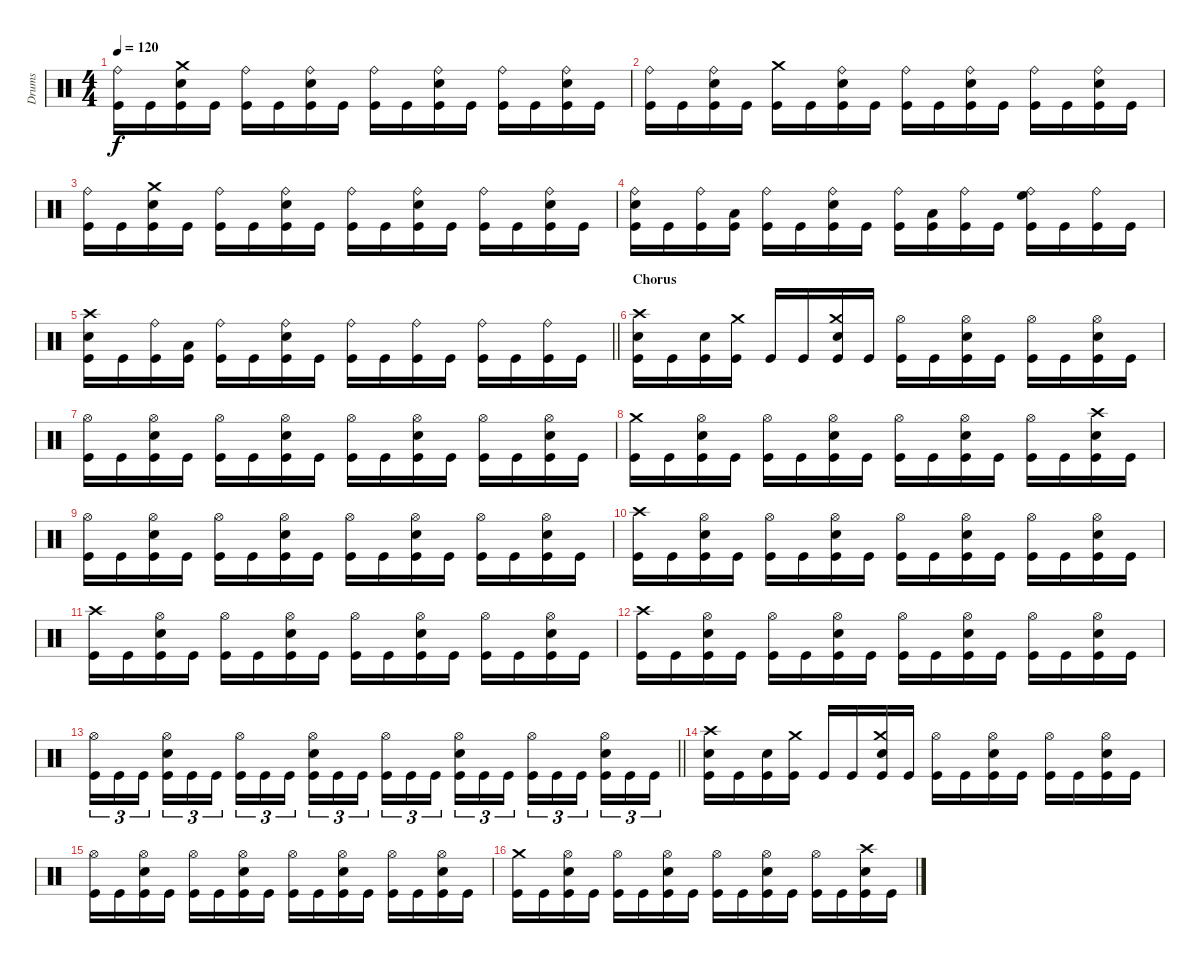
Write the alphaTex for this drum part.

\track ("Drums" "Drums") {instrument percussion}
\staff {score}
\articulation defaults
\ts (4 4)
\tempo 120
\clef neutral
\ks c
("Ride (bell)" "Kick (hit)").16{dy f} "Kick (hit)".16 ("Crash medium (hit)" "Electric Snare (hit)" "Kick (hit)").16 "Kick (hit)".16 ("Ride (bell)" "Kick (hit)").16 "Kick (hit)".16 ("Ride (bell)" "Electric Snare (hit)" "Kick (hit)").16 "Kick (hit)".16 ("Ride (bell)" "Kick (hit)").16 "Kick (hit)".16 ("Ride (bell)" "Electric Snare (hit)" "Kick (hit)").16 "Kick (hit)".16 ("Ride (bell)" "Kick (hit)").16 "Kick (hit)".16 ("Ride (bell)" "Electric Snare (hit)" "Kick (hit)").16 "Kick (hit)".16 |
("Ride (bell)" "Kick (hit)").16 "Kick (hit)".16 ("Ride (bell)" "Electric Snare (hit)" "Kick (hit)").16 "Kick (hit)".16 ("Crash medium (hit)" "Kick (hit)").16 "Kick (hit)".16 ("Ride (bell)" "Electric Snare (hit)" "Kick (hit)").16 "Kick (hit)".16 ("Ride (bell)" "Kick (hit)").16 "Kick (hit)".16 ("Ride (bell)" "Electric Snare (hit)" "Kick (hit)").16 "Kick (hit)".16 ("Ride (bell)" "Kick (hit)").16 "Kick (hit)".16 ("Ride (bell)" "Electric Snare (hit)" "Kick (hit)").16 "Kick (hit)".16 |
("Ride (bell)" "Kick (hit)").16 "Kick (hit)".16 ("Crash medium (hit)" "Electric Snare (hit)" "Kick (hit)").16 "Kick (hit)".16 ("Ride (bell)" "Kick (hit)").16 "Kick (hit)".16 ("Ride (bell)" "Electric Snare (hit)" "Kick (hit)").16 "Kick (hit)".16 ("Ride (bell)" "Kick (hit)").16 "Kick (hit)".16 ("Ride (bell)" "Electric Snare (hit)" "Kick (hit)").16 "Kick (hit)".16 ("Ride (bell)" "Kick (hit)").16 "Kick (hit)".16 ("Ride (bell)" "Electric Snare (hit)" "Kick (hit)").16 "Kick (hit)".16 |
("Ride (bell)" "Electric Snare (hit)" "Kick (hit)").16 "Kick (hit)".16 ("Ride (bell)" "Kick (hit)").16 ("Low Tom (hit)" "Kick (hit)").16 ("Ride (bell)" "Kick (hit)").16 "Kick (hit)".16 ("Ride (bell)" "Electric Snare (hit)" "Kick (hit)").16 "Kick (hit)".16 ("Ride (bell)" "Kick (hit)").16 ("Low Tom (hit)" "Kick (hit)").16 ("Ride (bell)" "Kick (hit)").16 "Kick (hit)".16 ("Ride (bell)" "High Floor Tom (hit)" "Kick (hit)").16 "Kick (hit)".16 ("Ride (bell)" "Kick (hit)").16 "Kick (hit)".16 |
\barLineRight lightlight
("Crash high (hit)" "Electric Snare (hit)" "Kick (hit)").16 "Kick (hit)".16 ("Ride (bell)" "Kick (hit)").16 ("Low Tom (hit)" "Kick (hit)").16 ("Ride (bell)" "Kick (hit)").16 "Kick (hit)".16 ("Ride (bell)" "Electric Snare (hit)" "Kick (hit)").16 "Kick (hit)".16 ("Ride (bell)" "Kick (hit)").16 "Kick (hit)".16 ("Ride (bell)" "Kick (hit)").16 "Kick (hit)".16 ("Ride (bell)" "Kick (hit)").16 "Kick (hit)".16 ("Ride (bell)" "Kick (hit)").16 "Kick (hit)".16 |
\section ("" "Chorus")
("Crash high (hit)" "Electric Snare (hit)" "Kick (hit)").16 "Kick (hit)".16 ("Electric Snare (hit)" "Kick (hit)").16 ("Crash medium (hit)" "Kick (hit)").16 "Kick (hit)".16 "Kick (hit)".16 ("Crash medium (hit)" "Electric Snare (hit)" "Kick (hit)").16 "Kick (hit)".16 ("Hi-Hat (open)" "Kick (hit)").16 "Kick (hit)".16 ("Hi-Hat (open)" "Electric Snare (hit)" "Kick (hit)").16 "Kick (hit)".16 ("Hi-Hat (open)" "Kick (hit)").16 "Kick (hit)".16 ("Hi-Hat (open)" "Electric Snare (hit)" "Kick (hit)").16 "Kick (hit)".16 |
("Hi-Hat (open)" "Kick (hit)").16 "Kick (hit)".16 ("Hi-Hat (open)" "Electric Snare (hit)" "Kick (hit)").16 "Kick (hit)".16 ("Hi-Hat (open)" "Kick (hit)").16 "Kick (hit)".16 ("Hi-Hat (open)" "Electric Snare (hit)" "Kick (hit)").16 "Kick (hit)".16 ("Hi-Hat (open)" "Kick (hit)").16 "Kick (hit)".16 ("Hi-Hat (open)" "Electric Snare (hit)" "Kick (hit)").16 "Kick (hit)".16 ("Hi-Hat (open)" "Kick (hit)").16 "Kick (hit)".16 ("Hi-Hat (open)" "Electric Snare (hit)" "Kick (hit)").16 "Kick (hit)".16 |
("Crash medium (hit)" "Kick (hit)").16 "Kick (hit)".16 ("Hi-Hat (open)" "Electric Snare (hit)" "Kick (hit)").16 "Kick (hit)".16 ("Hi-Hat (open)" "Kick (hit)").16 "Kick (hit)".16 ("Hi-Hat (open)" "Electric Snare (hit)" "Kick (hit)").16 "Kick (hit)".16 ("Hi-Hat (open)" "Kick (hit)").16 "Kick (hit)".16 ("Hi-Hat (open)" "Electric Snare (hit)" "Kick (hit)").16 "Kick (hit)".16 ("Hi-Hat (open)" "Kick (hit)").16 "Kick (hit)".16 ("Crash high (hit)" "Electric Snare (hit)" "Kick (hit)").16 "Kick (hit)".16 |
("Hi-Hat (open)" "Kick (hit)").16 "Kick (hit)".16 ("Hi-Hat (open)" "Electric Snare (hit)" "Kick (hit)").16 "Kick (hit)".16 ("Hi-Hat (open)" "Kick (hit)").16 "Kick (hit)".16 ("Hi-Hat (open)" "Electric Snare (hit)" "Kick (hit)").16 "Kick (hit)".16 ("Hi-Hat (open)" "Kick (hit)").16 "Kick (hit)".16 ("Hi-Hat (open)" "Electric Snare (hit)" "Kick (hit)").16 "Kick (hit)".16 ("Hi-Hat (open)" "Kick (hit)").16 "Kick (hit)".16 ("Hi-Hat (open)" "Electric Snare (hit)" "Kick (hit)").16 "Kick (hit)".16 |
("Crash high (hit)" "Kick (hit)").16 "Kick (hit)".16 ("Hi-Hat (open)" "Electric Snare (hit)" "Kick (hit)").16 "Kick (hit)".16 ("Hi-Hat (open)" "Kick (hit)").16 "Kick (hit)".16 ("Hi-Hat (open)" "Electric Snare (hit)" "Kick (hit)").16 "Kick (hit)".16 ("Hi-Hat (open)" "Kick (hit)").16 "Kick (hit)".16 ("Hi-Hat (open)" "Electric Snare (hit)" "Kick (hit)").16 "Kick (hit)".16 ("Hi-Hat (open)" "Kick (hit)").16 "Kick (hit)".16 ("Hi-Hat (open)" "Electric Snare (hit)" "Kick (hit)").16 "Kick (hit)".16 |
("Crash high (hit)" "Kick (hit)").16 "Kick (hit)".16 ("Hi-Hat (open)" "Electric Snare (hit)" "Kick (hit)").16 "Kick (hit)".16 ("Hi-Hat (open)" "Kick (hit)").16 "Kick (hit)".16 ("Hi-Hat (open)" "Electric Snare (hit)" "Kick (hit)").16 "Kick (hit)".16 ("Hi-Hat (open)" "Kick (hit)").16 "Kick (hit)".16 ("Hi-Hat (open)" "Electric Snare (hit)" "Kick (hit)").16 "Kick (hit)".16 ("Hi-Hat (open)" "Kick (hit)").16 "Kick (hit)".16 ("Hi-Hat (open)" "Electric Snare (hit)" "Kick (hit)").16 "Kick (hit)".16 |
("Crash high (hit)" "Kick (hit)").16 "Kick (hit)".16 ("Hi-Hat (open)" "Electric Snare (hit)" "Kick (hit)").16 "Kick (hit)".16 ("Hi-Hat (open)" "Kick (hit)").16 "Kick (hit)".16 ("Hi-Hat (open)" "Electric Snare (hit)" "Kick (hit)").16 "Kick (hit)".16 ("Hi-Hat (open)" "Kick (hit)").16 "Kick (hit)".16 ("Hi-Hat (open)" "Electric Snare (hit)" "Kick (hit)").16 "Kick (hit)".16 ("Hi-Hat (open)" "Kick (hit)").16 "Kick (hit)".16 ("Hi-Hat (open)" "Electric Snare (hit)" "Kick (hit)").16 "Kick (hit)".16 |
\barLineRight lightlight
("Hi-Hat (open)" "Kick (hit)").16{tu (3 2)} "Kick (hit)".16{tu (3 2)} "Kick (hit)".16{tu (3 2)} ("Hi-Hat (open)" "Electric Snare (hit)" "Kick (hit)").16{tu (3 2)} "Kick (hit)".16{tu (3 2)} "Kick (hit)".16{tu (3 2)} ("Hi-Hat (open)" "Kick (hit)").16{tu (3 2)} "Kick (hit)".16{tu (3 2)} "Kick (hit)".16{tu (3 2)} ("Hi-Hat (open)" "Electric Snare (hit)" "Kick (hit)").16{tu (3 2)} "Kick (hit)".16{tu (3 2)} "Kick (hit)".16{tu (3 2)} ("Hi-Hat (open)" "Kick (hit)").16{tu (3 2)} "Kick (hit)".16{tu (3 2)} "Kick (hit)".16{tu (3 2)} ("Hi-Hat (open)" "Electric Snare (hit)" "Kick (hit)").16{tu (3 2)} "Kick (hit)".16{tu (3 2)} "Kick (hit)".16{tu (3 2)} ("Hi-Hat (open)" "Kick (hit)").16{tu (3 2)} "Kick (hit)".16{tu (3 2)} "Kick (hit)".16{tu (3 2)} ("Hi-Hat (open)" "Electric Snare (hit)" "Kick (hit)").16{tu (3 2)} "Kick (hit)".16{tu (3 2)} "Kick (hit)".16{tu (3 2)} |
("Crash high (hit)" "Electric Snare (hit)" "Kick (hit)").16 "Kick (hit)".16 ("Electric Snare (hit)" "Kick (hit)").16 ("Crash medium (hit)" "Kick (hit)").16 "Kick (hit)".16 "Kick (hit)".16 ("Crash medium (hit)" "Electric Snare (hit)" "Kick (hit)").16 "Kick (hit)".16 ("Hi-Hat (open)" "Kick (hit)").16 "Kick (hit)".16 ("Hi-Hat (open)" "Electric Snare (hit)" "Kick (hit)").16 "Kick (hit)".16 ("Hi-Hat (open)" "Kick (hit)").16 "Kick (hit)".16 ("Hi-Hat (open)" "Electric Snare (hit)" "Kick (hit)").16 "Kick (hit)".16 |
("Hi-Hat (open)" "Kick (hit)").16 "Kick (hit)".16 ("Hi-Hat (open)" "Electric Snare (hit)" "Kick (hit)").16 "Kick (hit)".16 ("Hi-Hat (open)" "Kick (hit)").16 "Kick (hit)".16 ("Hi-Hat (open)" "Electric Snare (hit)" "Kick (hit)").16 "Kick (hit)".16 ("Hi-Hat (open)" "Kick (hit)").16 "Kick (hit)".16 ("Hi-Hat (open)" "Electric Snare (hit)" "Kick (hit)").16 "Kick (hit)".16 ("Hi-Hat (open)" "Kick (hit)").16 "Kick (hit)".16 ("Hi-Hat (open)" "Electric Snare (hit)" "Kick (hit)").16 "Kick (hit)".16 |
("Crash medium (hit)" "Kick (hit)").16 "Kick (hit)".16 ("Hi-Hat (open)" "Electric Snare (hit)" "Kick (hit)").16 "Kick (hit)".16 ("Hi-Hat (open)" "Kick (hit)").16 "Kick (hit)".16 ("Hi-Hat (open)" "Electric Snare (hit)" "Kick (hit)").16 "Kick (hit)".16 ("Hi-Hat (open)" "Kick (hit)").16 "Kick (hit)".16 ("Hi-Hat (open)" "Electric Snare (hit)" "Kick (hit)").16 "Kick (hit)".16 ("Hi-Hat (open)" "Kick (hit)").16 "Kick (hit)".16 ("Crash high (hit)" "Electric Snare (hit)" "Kick (hit)").16 "Kick (hit)".16
